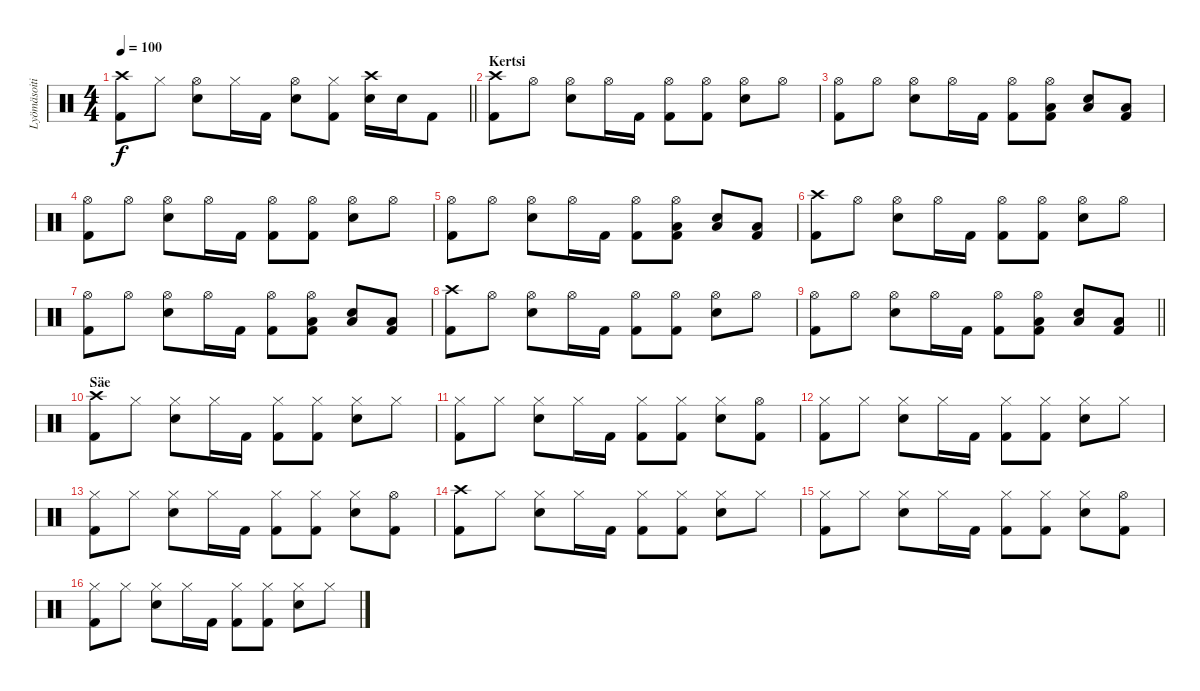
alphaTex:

\track ("Lyömäsoitin" "Lyömäsoiti") {instrument percussion}
\staff {score}
\articulation defaults
\ts (4 4)
\tempo 100
\clef neutral
\barLineRight lightlight
\ks c
("Crash high (hit)" "Kick (hit) 2").8{dy f} "Hi-Hat (closed)".8 ("Hi-Hat (open)" "Snare (hit) 2").8 "Hi-Hat (closed)".16 "Kick (hit) 2".16 ("Hi-Hat (open)" "Snare (hit) 2").8 ("Hi-Hat (closed)" "Kick (hit) 2").8 ("Crash high (hit)" "Snare (hit) 2").16 "Snare (hit) 2".16 "Kick (hit) 2".8 |
\section ("" "Kertsi")
("Crash high (hit)" "Kick (hit) 2").8 "Hi-Hat (open)".8 ("Hi-Hat (open)" "Snare (hit) 2").8 "Hi-Hat (open)".16 "Kick (hit) 2".16 ("Hi-Hat (open)" "Kick (hit) 2").8 ("Hi-Hat (open)" "Kick (hit) 2").8 ("Hi-Hat (open)" "Snare (hit) 2").8 "Hi-Hat (open)".8 |
("Hi-Hat (open)" "Kick (hit) 2").8 "Hi-Hat (open)".8 ("Hi-Hat (open)" "Snare (hit) 2").8 "Hi-Hat (open)".16 "Kick (hit) 2".16 ("Hi-Hat (open)" "Kick (hit) 2").8 ("Hi-Hat (open)" "Low Floor Tom (hit)" "Kick (hit) 2").8 ("Snare (hit) 2" "Low Floor Tom (hit)").8 ("Low Floor Tom (hit)" "Kick (hit) 2").8 |
("Hi-Hat (open)" "Kick (hit) 2").8 "Hi-Hat (open)".8 ("Hi-Hat (open)" "Snare (hit) 2").8 "Hi-Hat (open)".16 "Kick (hit) 2".16 ("Hi-Hat (open)" "Kick (hit) 2").8 ("Hi-Hat (open)" "Kick (hit) 2").8 ("Hi-Hat (open)" "Snare (hit) 2").8 "Hi-Hat (open)".8 |
("Hi-Hat (open)" "Kick (hit) 2").8 "Hi-Hat (open)".8 ("Hi-Hat (open)" "Snare (hit) 2").8 "Hi-Hat (open)".16 "Kick (hit) 2".16 ("Hi-Hat (open)" "Kick (hit) 2").8 ("Hi-Hat (open)" "Low Floor Tom (hit)" "Kick (hit) 2").8 ("Snare (hit) 2" "Low Floor Tom (hit)").8 ("Low Floor Tom (hit)" "Kick (hit) 2").8 |
("Crash high (hit)" "Kick (hit) 2").8 "Hi-Hat (open)".8 ("Hi-Hat (open)" "Snare (hit) 2").8 "Hi-Hat (open)".16 "Kick (hit) 2".16 ("Hi-Hat (open)" "Kick (hit) 2").8 ("Hi-Hat (open)" "Kick (hit) 2").8 ("Hi-Hat (open)" "Snare (hit) 2").8 "Hi-Hat (open)".8 |
("Hi-Hat (open)" "Kick (hit) 2").8 "Hi-Hat (open)".8 ("Hi-Hat (open)" "Snare (hit) 2").8 "Hi-Hat (open)".16 "Kick (hit) 2".16 ("Hi-Hat (open)" "Kick (hit) 2").8 ("Hi-Hat (open)" "Low Floor Tom (hit)" "Kick (hit) 2").8 ("Snare (hit) 2" "Low Floor Tom (hit)").8 ("Low Floor Tom (hit)" "Kick (hit) 2").8 |
("Crash high (hit)" "Kick (hit) 2").8 "Hi-Hat (open)".8 ("Hi-Hat (open)" "Snare (hit) 2").8 "Hi-Hat (open)".16 "Kick (hit) 2".16 ("Hi-Hat (open)" "Kick (hit) 2").8 ("Hi-Hat (open)" "Kick (hit) 2").8 ("Hi-Hat (open)" "Snare (hit) 2").8 "Hi-Hat (open)".8 |
\barLineRight lightlight
("Hi-Hat (open)" "Kick (hit) 2").8 "Hi-Hat (open)".8 ("Hi-Hat (open)" "Snare (hit) 2").8 "Hi-Hat (open)".16 "Kick (hit) 2".16 ("Hi-Hat (open)" "Kick (hit) 2").8 ("Hi-Hat (open)" "Low Floor Tom (hit)" "Kick (hit) 2").8 ("Snare (hit) 2" "Low Floor Tom (hit)").8 ("Low Floor Tom (hit)" "Kick (hit) 2").8 |
\section ("" "Säe")
("Crash high (hit)" "Kick (hit) 2").8 "Hi-Hat (closed)".8 ("Hi-Hat (closed)" "Snare (hit) 2").8 "Hi-Hat (closed)".16 "Kick (hit) 2".16 ("Hi-Hat (closed)" "Kick (hit) 2").8 ("Hi-Hat (closed)" "Kick (hit) 2").8 ("Hi-Hat (closed)" "Snare (hit) 2").8 "Hi-Hat (closed)".8 |
("Hi-Hat (closed)" "Kick (hit) 2").8 "Hi-Hat (closed)".8 ("Hi-Hat (closed)" "Snare (hit) 2").8 "Hi-Hat (closed)".16 "Kick (hit) 2".16 ("Hi-Hat (closed)" "Kick (hit) 2").8 ("Hi-Hat (closed)" "Kick (hit) 2").8 ("Hi-Hat (closed)" "Snare (hit) 2").8 ("Hi-Hat (open)" "Kick (hit) 2").8 |
("Hi-Hat (closed)" "Kick (hit) 2").8 "Hi-Hat (closed)".8 ("Hi-Hat (closed)" "Snare (hit) 2").8 "Hi-Hat (closed)".16 "Kick (hit) 2".16 ("Hi-Hat (closed)" "Kick (hit) 2").8 ("Hi-Hat (closed)" "Kick (hit) 2").8 ("Hi-Hat (closed)" "Snare (hit) 2").8 "Hi-Hat (closed)".8 |
("Hi-Hat (closed)" "Kick (hit) 2").8 "Hi-Hat (closed)".8 ("Hi-Hat (closed)" "Snare (hit) 2").8 "Hi-Hat (closed)".16 "Kick (hit) 2".16 ("Hi-Hat (closed)" "Kick (hit) 2").8 ("Hi-Hat (closed)" "Kick (hit) 2").8 ("Hi-Hat (closed)" "Snare (hit) 2").8 ("Hi-Hat (open)" "Kick (hit) 2").8 |
("Crash high (hit)" "Kick (hit) 2").8 "Hi-Hat (closed)".8 ("Hi-Hat (closed)" "Snare (hit) 2").8 "Hi-Hat (closed)".16 "Kick (hit) 2".16 ("Hi-Hat (closed)" "Kick (hit) 2").8 ("Hi-Hat (closed)" "Kick (hit) 2").8 ("Hi-Hat (closed)" "Snare (hit) 2").8 "Hi-Hat (closed)".8 |
("Hi-Hat (closed)" "Kick (hit) 2").8 "Hi-Hat (closed)".8 ("Hi-Hat (closed)" "Snare (hit) 2").8 "Hi-Hat (closed)".16 "Kick (hit) 2".16 ("Hi-Hat (closed)" "Kick (hit) 2").8 ("Hi-Hat (closed)" "Kick (hit) 2").8 ("Hi-Hat (closed)" "Snare (hit) 2").8 ("Hi-Hat (open)" "Kick (hit) 2").8 |
("Hi-Hat (closed)" "Kick (hit) 2").8 "Hi-Hat (closed)".8 ("Hi-Hat (closed)" "Snare (hit) 2").8 "Hi-Hat (closed)".16 "Kick (hit) 2".16 ("Hi-Hat (closed)" "Kick (hit) 2").8 ("Hi-Hat (closed)" "Kick (hit) 2").8 ("Hi-Hat (closed)" "Snare (hit) 2").8 "Hi-Hat (closed)".8
